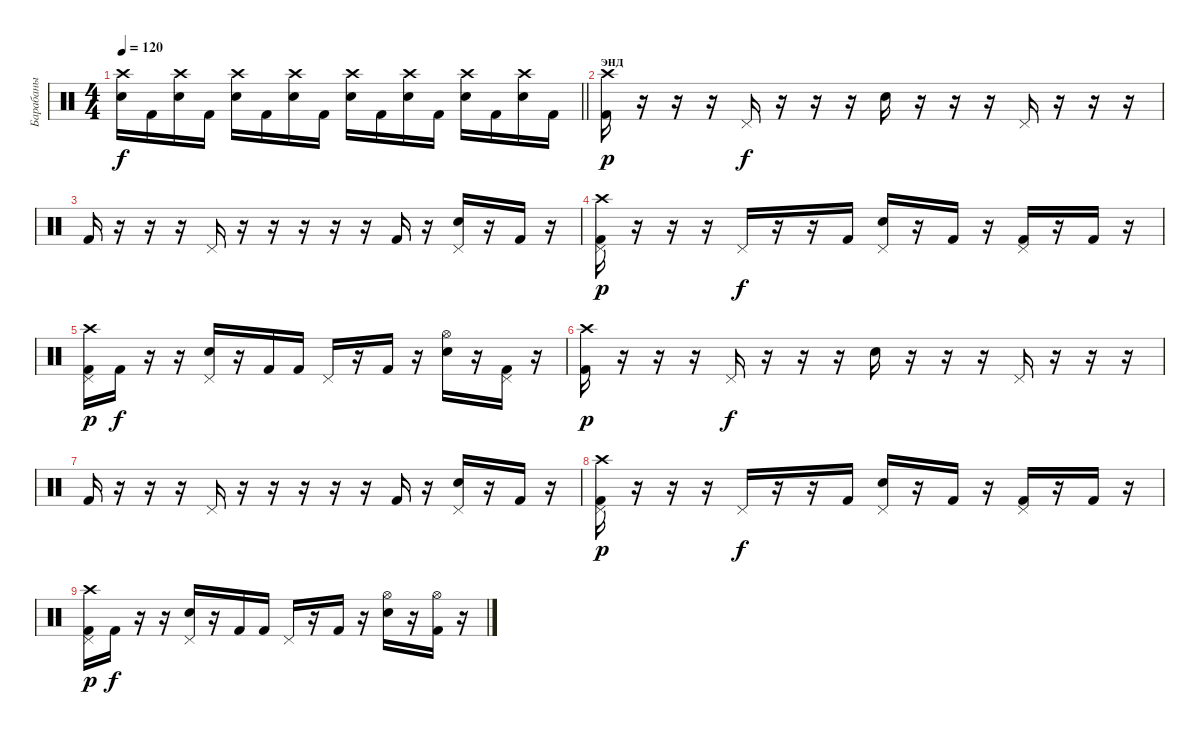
\track ("Барабаны" "Барабаны") {instrument percussion}
\staff {score}
\articulation defaults
\ts (4 4)
\tempo 120
\clef neutral
\barLineRight lightlight
\ks c
("Crash high (hit)" "Electric Snare (hit)").16{dy f} "Kick (hit) 2".16 ("Crash high (hit)" "Electric Snare (hit)").16 "Kick (hit) 2".16 ("Crash high (hit)" "Electric Snare (hit)").16 "Kick (hit) 2".16 ("Crash high (hit)" "Electric Snare (hit)").16 "Kick (hit) 2".16 ("Crash high (hit)" "Electric Snare (hit)").16 "Kick (hit) 2".16 ("Crash high (hit)" "Electric Snare (hit)").16 "Kick (hit) 2".16 ("Crash high (hit)" "Electric Snare (hit)").16 "Kick (hit) 2".16 ("Crash high (hit)" "Electric Snare (hit)").16 "Kick (hit) 2".16 |
\section ("" "энд")
("Crash high (hit)" "Kick (hit) 2").16{dy p} r.16 r.16 r.16 "Pedal Hi-Hat (hit)".16{dy f} r.16 r.16 r.16 "Electric Snare (hit)".16 r.16 r.16 r.16 "Pedal Hi-Hat (hit)".16 r.16 r.16 r.16 |
"Kick (hit) 2".16 r.16 r.16 r.16 "Pedal Hi-Hat (hit)".16 r.16 r.16 r.16 r.16 r.16 "Kick (hit) 2".16 r.16 ("Pedal Hi-Hat (hit)" "Electric Snare (hit)").16 r.16 "Kick (hit) 2".16 r.16 |
("Crash high (hit)" "Pedal Hi-Hat (hit)" "Kick (hit) 2").16{dy p} r.16 r.16 r.16 "Pedal Hi-Hat (hit)".16{dy f} r.16 r.16 "Kick (hit) 2".16 ("Pedal Hi-Hat (hit)" "Electric Snare (hit)").16 r.16 "Kick (hit) 2".16 r.16 ("Pedal Hi-Hat (hit)" "Kick (hit) 2").16 r.16 "Kick (hit) 2".16 r.16 |
("Crash high (hit)" "Pedal Hi-Hat (hit)" "Kick (hit) 2").16{dy p} "Kick (hit) 2".16{dy f} r.16 r.16 ("Pedal Hi-Hat (hit)" "Electric Snare (hit)").16 r.16 "Kick (hit) 2".16 "Kick (hit) 2".16 "Pedal Hi-Hat (hit)".16 r.16 "Kick (hit) 2".16 r.16 ("Hi-Hat (open)" "Electric Snare (hit)").16 r.16 ("Pedal Hi-Hat (hit)" "Kick (hit) 2").16 r.16 |
("Crash high (hit)" "Kick (hit) 2").16{dy p} r.16 r.16 r.16 "Pedal Hi-Hat (hit)".16{dy f} r.16 r.16 r.16 "Electric Snare (hit)".16 r.16 r.16 r.16 "Pedal Hi-Hat (hit)".16 r.16 r.16 r.16 |
"Kick (hit) 2".16 r.16 r.16 r.16 "Pedal Hi-Hat (hit)".16 r.16 r.16 r.16 r.16 r.16 "Kick (hit) 2".16 r.16 ("Pedal Hi-Hat (hit)" "Electric Snare (hit)").16 r.16 "Kick (hit) 2".16 r.16 |
("Crash high (hit)" "Pedal Hi-Hat (hit)" "Kick (hit) 2").16{dy p} r.16 r.16 r.16 "Pedal Hi-Hat (hit)".16{dy f} r.16 r.16 "Kick (hit) 2".16 ("Pedal Hi-Hat (hit)" "Electric Snare (hit)").16 r.16 "Kick (hit) 2".16 r.16 ("Pedal Hi-Hat (hit)" "Kick (hit) 2").16 r.16 "Kick (hit) 2".16 r.16 |
("Crash high (hit)" "Pedal Hi-Hat (hit)" "Kick (hit) 2").16{dy p} "Kick (hit) 2".16{dy f} r.16 r.16 ("Pedal Hi-Hat (hit)" "Electric Snare (hit)").16 r.16 "Kick (hit) 2".16 "Kick (hit) 2".16 "Pedal Hi-Hat (hit)".16 r.16 "Kick (hit) 2".16 r.16 ("Hi-Hat (open)" "Electric Snare (hit)").16 r.16 ("Hi-Hat (open)" "Kick (hit) 2").16 r.16
